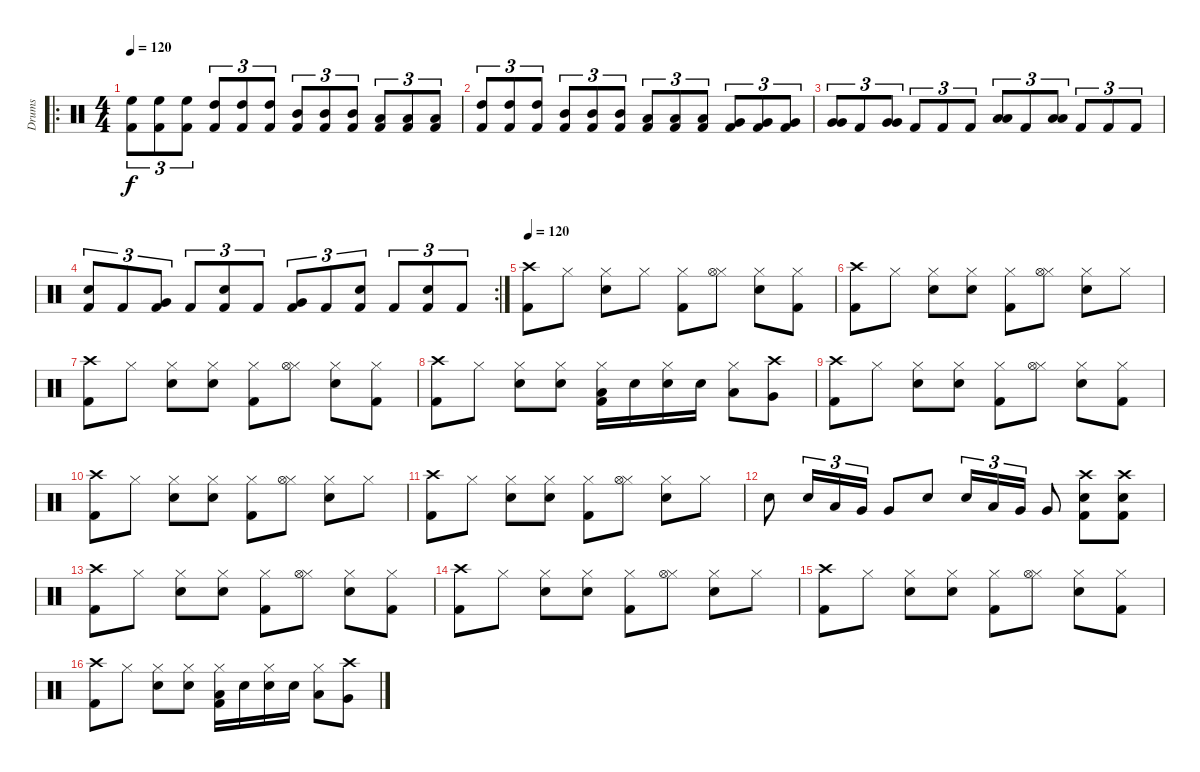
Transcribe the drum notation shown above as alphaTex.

\track ("Drums" "Drums") {instrument percussion}
\staff {score}
\articulation defaults
\ro
\ts (4 4)
\tempo 120
\tempo 200
\tempo 120
\clef neutral
\ks c
("Kick (hit) 2" "High Floor Tom (hit)").8{tu (3 2) dy f} ("Kick (hit) 2" "High Floor Tom (hit)").8{tu (3 2)} ("Kick (hit) 2" "High Floor Tom (hit)").8{tu (3 2)} ("Kick (hit) 2" "High Tom (hit)").8{tu (3 2)} ("Kick (hit) 2" "High Tom (hit)").8{tu (3 2)} ("Kick (hit) 2" "High Tom (hit)").8{tu (3 2)} ("Kick (hit) 2" "Mid Tom (hit)").8{tu (3 2)} ("Kick (hit) 2" "Mid Tom (hit)").8{tu (3 2)} ("Kick (hit) 2" "Mid Tom (hit)").8{tu (3 2)} ("Kick (hit) 2" "Low Tom (hit)").8{tu (3 2)} ("Kick (hit) 2" "Low Tom (hit)").8{tu (3 2)} ("Kick (hit) 2" "Low Tom (hit)").8{tu (3 2)} |
("Kick (hit) 2" "High Tom (hit)").8{tu (3 2)} ("Kick (hit) 2" "High Tom (hit)").8{tu (3 2)} ("Kick (hit) 2" "High Tom (hit)").8{tu (3 2)} ("Kick (hit) 2" "Mid Tom (hit)").8{tu (3 2)} ("Kick (hit) 2" "Mid Tom (hit)").8{tu (3 2)} ("Kick (hit) 2" "Mid Tom (hit)").8{tu (3 2)} ("Kick (hit) 2" "Low Tom (hit)").8{tu (3 2)} ("Kick (hit) 2" "Low Tom (hit)").8{tu (3 2)} ("Kick (hit) 2" "Low Tom (hit)").8{tu (3 2)} ("Kick (hit) 2" "Very Low Tom (hit)").8{tu (3 2)} ("Kick (hit) 2" "Very Low Tom (hit)").8{tu (3 2)} ("Kick (hit) 2" "Very Low Tom (hit)").8{tu (3 2)} |
("Very Low Tom (hit)" "Very Low Tom (hit)").8{tu (3 2)} "Kick (hit) 2".8{tu (3 2)} ("Very Low Tom (hit)" "Very Low Tom (hit)").8{tu (3 2)} "Kick (hit) 2".8{tu (3 2)} "Kick (hit) 2".8{tu (3 2)} "Kick (hit) 2".8{tu (3 2)} ("Low Tom (hit)" "Low Tom (hit)").8{tu (3 2)} "Kick (hit) 2".8{tu (3 2)} ("Low Tom (hit)" "Low Tom (hit)").8{tu (3 2)} "Kick (hit) 2".8{tu (3 2)} "Kick (hit) 2".8{tu (3 2)} "Kick (hit) 2".8{tu (3 2)} |
\rc 2
("Kick (hit) 2" "Snare (hit) 2").8{tu (3 2)} "Kick (hit) 2".8{tu (3 2)} ("Kick (hit) 2" "Very Low Tom (hit)").8{tu (3 2)} "Kick (hit) 2".8{tu (3 2)} ("Kick (hit) 2" "Snare (hit) 2").8{tu (3 2)} "Kick (hit) 2".8{tu (3 2)} ("Kick (hit) 2" "Very Low Tom (hit)").8{tu (3 2)} "Kick (hit) 2".8{tu (3 2)} ("Kick (hit) 2" "Snare (hit) 2").8{tu (3 2)} "Kick (hit) 2".8{tu (3 2)} ("Kick (hit) 2" "Snare (hit) 2").8{tu (3 2)} "Kick (hit) 2".8{tu (3 2)} |
\tempo 120
("Crash high (hit)" "Kick (hit) 2").8 "Hi-Hat (closed)".8 ("Hi-Hat (closed)" "Snare (hit) 2").8 "Hi-Hat (closed)".8 ("Hi-Hat (closed)" "Kick (hit) 2").8 ("Hi-Hat (closed)" "Hi-Hat (open)").8 ("Hi-Hat (closed)" "Snare (hit) 2").8 ("Hi-Hat (closed)" "Kick (hit) 2").8 |
("Crash high (hit)" "Kick (hit) 2").8 "Hi-Hat (closed)".8 ("Hi-Hat (closed)" "Snare (hit) 2").8 ("Hi-Hat (closed)" "Snare (hit) 2").8 ("Hi-Hat (closed)" "Kick (hit) 2").8 ("Hi-Hat (closed)" "Hi-Hat (open)").8 ("Hi-Hat (closed)" "Snare (hit) 2").8 "Hi-Hat (closed)".8 |
("Crash high (hit)" "Kick (hit) 2").8 "Hi-Hat (closed)".8 ("Hi-Hat (closed)" "Snare (hit) 2").8 ("Hi-Hat (closed)" "Snare (hit) 2").8 ("Hi-Hat (closed)" "Kick (hit) 2").8 ("Hi-Hat (closed)" "Hi-Hat (open)").8 ("Hi-Hat (closed)" "Snare (hit) 2").8 ("Hi-Hat (closed)" "Kick (hit) 2").8 |
("Crash high (hit)" "Kick (hit) 2").8 "Hi-Hat (closed)".8 ("Hi-Hat (closed)" "Snare (hit) 2").8 ("Hi-Hat (closed)" "Snare (hit) 2").8 ("Hi-Hat (closed)" "Kick (hit) 2" "Low Tom (hit)").16 "Snare (hit) 2".16 ("Hi-Hat (closed)" "Snare (hit) 2").16 "Snare (hit) 2".16 ("Hi-Hat (closed)" "Low Tom (hit)").8 ("Crash high (hit)" "Very Low Tom (hit)").8 |
("Crash high (hit)" "Kick (hit) 2").8 "Hi-Hat (closed)".8 ("Hi-Hat (closed)" "Snare (hit) 2").8 ("Hi-Hat (closed)" "Snare (hit) 2").8 ("Hi-Hat (closed)" "Kick (hit) 2").8 ("Hi-Hat (closed)" "Hi-Hat (open)").8 ("Hi-Hat (closed)" "Snare (hit) 2").8 ("Hi-Hat (closed)" "Kick (hit) 2").8 |
("Crash high (hit)" "Kick (hit) 2").8 "Hi-Hat (closed)".8 ("Hi-Hat (closed)" "Snare (hit) 2").8 ("Hi-Hat (closed)" "Snare (hit) 2").8 ("Hi-Hat (closed)" "Kick (hit) 2").8 ("Hi-Hat (closed)" "Hi-Hat (open)").8 ("Hi-Hat (closed)" "Snare (hit) 2").8 "Hi-Hat (closed)".8 |
("Crash high (hit)" "Kick (hit) 2").8 "Hi-Hat (closed)".8 ("Hi-Hat (closed)" "Snare (hit) 2").8 ("Hi-Hat (closed)" "Snare (hit) 2").8 ("Hi-Hat (closed)" "Kick (hit) 2").8 ("Hi-Hat (closed)" "Hi-Hat (open)").8 ("Hi-Hat (closed)" "Snare (hit) 2").8 "Hi-Hat (closed)".8 |
"Snare (hit) 2".8 "Snare (hit) 2".16{tu (3 2)} "Low Tom (hit)".16{tu (3 2)} "Very Low Tom (hit)".16{tu (3 2)} "Very Low Tom (hit)".8 "Snare (hit) 2".8 "Snare (hit) 2".16{tu (3 2)} "Low Tom (hit)".16{tu (3 2)} "Very Low Tom (hit)".16{tu (3 2)} "Very Low Tom (hit)".8 ("Crash high (hit)" "Snare (hit) 2" "Kick (hit) 2").8 ("Crash high (hit)" "Snare (hit) 2" "Kick (hit) 2").8 |
("Crash high (hit)" "Kick (hit) 2").8 "Hi-Hat (closed)".8 ("Hi-Hat (closed)" "Snare (hit) 2").8 ("Hi-Hat (closed)" "Snare (hit) 2").8 ("Hi-Hat (closed)" "Kick (hit) 2").8 ("Hi-Hat (closed)" "Hi-Hat (open)").8 ("Hi-Hat (closed)" "Snare (hit) 2").8 ("Hi-Hat (closed)" "Kick (hit) 2").8 |
("Crash high (hit)" "Kick (hit) 2").8 "Hi-Hat (closed)".8 ("Hi-Hat (closed)" "Snare (hit) 2").8 ("Hi-Hat (closed)" "Snare (hit) 2").8 ("Hi-Hat (closed)" "Kick (hit) 2").8 ("Hi-Hat (closed)" "Hi-Hat (open)").8 ("Hi-Hat (closed)" "Snare (hit) 2").8 "Hi-Hat (closed)".8 |
("Crash high (hit)" "Kick (hit) 2").8 "Hi-Hat (closed)".8 ("Hi-Hat (closed)" "Snare (hit) 2").8 ("Hi-Hat (closed)" "Snare (hit) 2").8 ("Hi-Hat (closed)" "Kick (hit) 2").8 ("Hi-Hat (closed)" "Hi-Hat (open)").8 ("Hi-Hat (closed)" "Snare (hit) 2").8 ("Hi-Hat (closed)" "Kick (hit) 2").8 |
("Crash high (hit)" "Kick (hit) 2").8 "Hi-Hat (closed)".8 ("Hi-Hat (closed)" "Snare (hit) 2").8 ("Hi-Hat (closed)" "Snare (hit) 2").8 ("Hi-Hat (closed)" "Kick (hit) 2" "Low Tom (hit)").16 "Snare (hit) 2".16 ("Hi-Hat (closed)" "Snare (hit) 2").16 "Snare (hit) 2".16 ("Hi-Hat (closed)" "Low Tom (hit)").8 ("Crash high (hit)" "Very Low Tom (hit)").8
